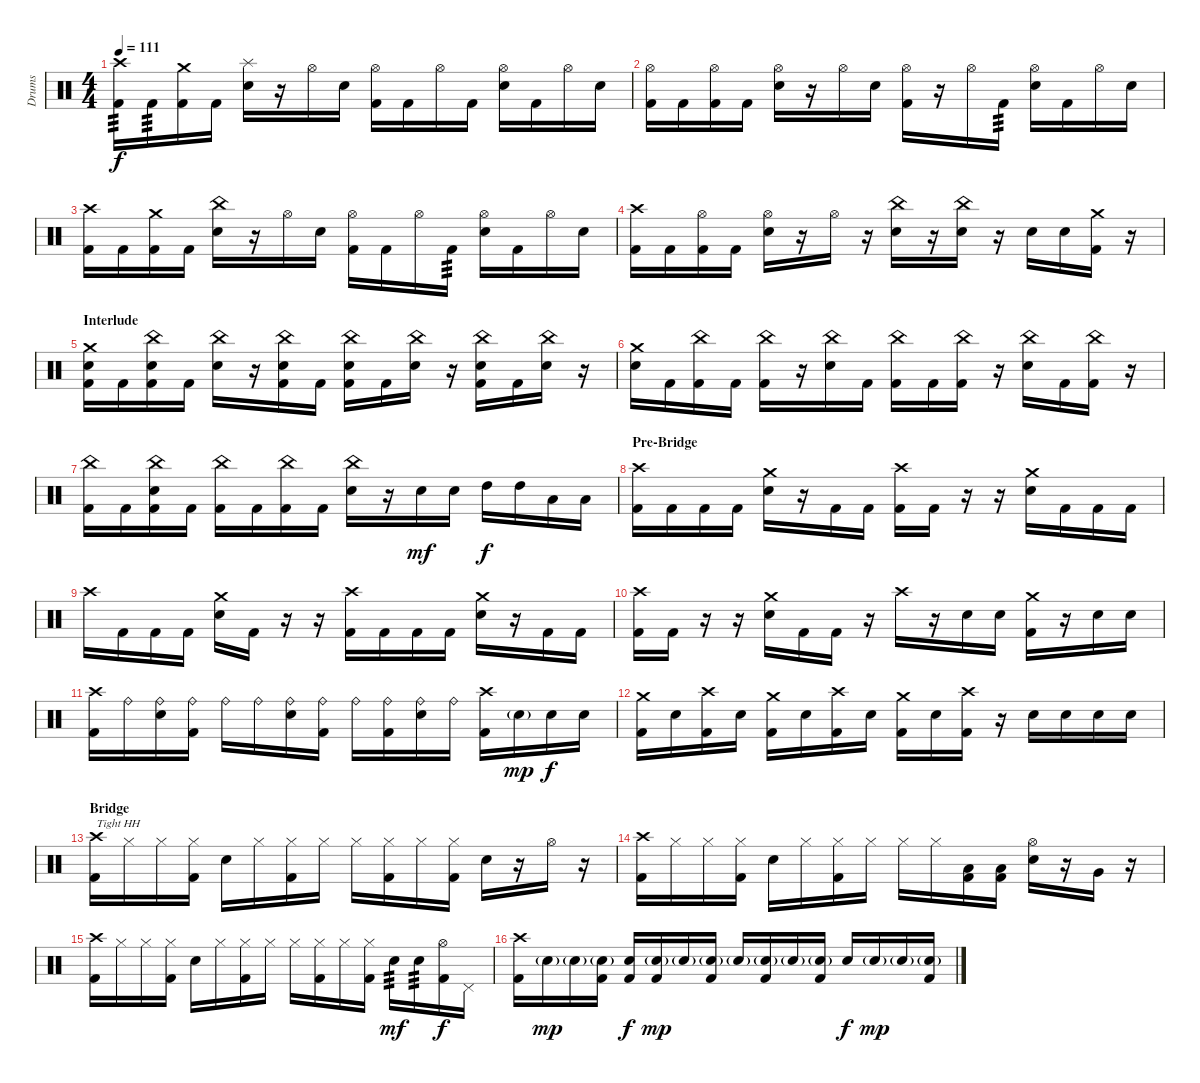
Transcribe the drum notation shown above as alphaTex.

\track ("Drums" "Drums") {instrument percussion}
\staff {score}
\articulation defaults
\ts (4 4)
\tempo 111
\clef neutral
\ks c
("Crash high (hit)" "Kick (hit) 2").16{tp 3 dy f} "Kick (hit) 2".16{tp 3} ("Crash medium (hit)" "Kick (hit) 2").16 "Kick (hit) 2".16 ("Splash (hit)" "Electric Snare (hit)").16 r.16 "Hi-Hat (open)".16 "Electric Snare (hit)".16 ("Hi-Hat (open)" "Kick (hit) 2").16 "Kick (hit) 2".16 "Hi-Hat (open)".16 "Kick (hit) 2".16 ("Hi-Hat (open)" "Electric Snare (hit)").16 "Kick (hit) 2".16 "Hi-Hat (open)".16 "Electric Snare (hit)".16 |
("Hi-Hat (open)" "Kick (hit) 2").16 "Kick (hit) 2".16 ("Hi-Hat (open)" "Kick (hit) 2").16 "Kick (hit) 2".16 ("Hi-Hat (open)" "Electric Snare (hit)").16 r.16 "Hi-Hat (open)".16 "Electric Snare (hit)".16 ("Hi-Hat (open)" "Kick (hit) 2").16 r.16 "Hi-Hat (open)".16 "Kick (hit) 2".16{tp 3} ("Hi-Hat (open)" "Electric Snare (hit)").16 "Kick (hit) 2".16 "Hi-Hat (open)".16 "Electric Snare (hit)".16 |
("Crash high (hit)" "Kick (hit) 2").16 "Kick (hit) 2".16 ("Crash medium (hit)" "Kick (hit) 2").16 "Kick (hit) 2".16 ("China (hit)" "Electric Snare (hit)").16 r.16 "Hi-Hat (open)".16 "Electric Snare (hit)".16 ("Hi-Hat (open)" "Kick (hit) 2").16 "Kick (hit) 2".16 "Hi-Hat (open)".16 "Kick (hit) 2".16{tp 3} ("Hi-Hat (open)" "Electric Snare (hit)").16 "Kick (hit) 2".16 "Hi-Hat (open)".16 "Electric Snare (hit)".16 |
("Crash high (hit)" "Kick (hit) 2").16 "Kick (hit) 2".16 ("Hi-Hat (open)" "Kick (hit) 2").16 "Kick (hit) 2".16 ("Hi-Hat (open)" "Electric Snare (hit)").16 r.16 "Hi-Hat (open)".16 r.16 ("China (hit)" "Electric Snare (hit)").16 r.16 ("China (hit)" "Electric Snare (hit)").16 r.16 "Electric Snare (hit)".16 "Electric Snare (hit)".16 ("Crash medium (hit)" "Kick (hit) 2").16 r.16 |
\section ("" "Interlude")
("Crash medium (hit)" "Electric Snare (hit)" "Kick (hit) 2").16 "Kick (hit) 2".16 ("China (hit)" "Electric Snare (hit)" "Kick (hit) 2").16 "Kick (hit) 2".16 ("China (hit)" "Electric Snare (hit)").16 r.16 ("China (hit)" "Electric Snare (hit)" "Kick (hit) 2").16 "Kick (hit) 2".16 ("China (hit)" "Electric Snare (hit)" "Kick (hit) 2").16 "Kick (hit) 2".16 ("China (hit)" "Electric Snare (hit)").16 r.16 ("China (hit)" "Electric Snare (hit)" "Kick (hit) 2").16 "Kick (hit) 2".16 ("China (hit)" "Electric Snare (hit)").16 r.16 |
("Crash medium (hit)" "Electric Snare (hit)").16 "Kick (hit) 2".16 ("China (hit)" "Kick (hit) 2").16 "Kick (hit) 2".16 ("China (hit)" "Kick (hit) 2").16 r.16 ("China (hit)" "Electric Snare (hit)").16 "Kick (hit) 2".16 ("China (hit)" "Kick (hit) 2").16 "Kick (hit) 2".16 ("China (hit)" "Kick (hit) 2").16 r.16 ("China (hit)" "Electric Snare (hit)").16 "Kick (hit) 2".16 ("China (hit)" "Kick (hit) 2").16 r.16 |
("China (hit)" "Kick (hit) 2").16 "Kick (hit) 2".16 ("China (hit)" "Electric Snare (hit)" "Kick (hit) 2").16 "Kick (hit) 2".16 ("China (hit)" "Kick (hit) 2").16 "Kick (hit) 2".16 ("China (hit)" "Kick (hit) 2").16 "Kick (hit) 2".16 ("China (hit)" "Electric Snare (hit)").16 r.16 "Electric Snare (hit)".16{dy mf} "Electric Snare (hit)".16 "High Tom (hit)".16{dy f} "High Tom (hit)".16 "Low Tom (hit)".16 "Low Tom (hit)".16 |
\section ("" "Pre-Bridge")
("Crash high (hit)" "Kick (hit) 2").16 "Kick (hit) 2".16 "Kick (hit) 2".16 "Kick (hit) 2".16 ("Crash medium (hit)" "Electric Snare (hit)").16 r.16 "Kick (hit) 2".16 "Kick (hit) 2".16 ("Crash high (hit)" "Kick (hit) 2").16 "Kick (hit) 2".16 r.16 r.16 ("Crash medium (hit)" "Electric Snare (hit)").16 "Kick (hit) 2".16 "Kick (hit) 2".16 "Kick (hit) 2".16 |
"Crash high (hit)".16 "Kick (hit) 2".16 "Kick (hit) 2".16 "Kick (hit) 2".16 ("Crash medium (hit)" "Electric Snare (hit)").16 "Kick (hit) 2".16 r.16 r.16 ("Crash high (hit)" "Kick (hit) 2").16 "Kick (hit) 2".16 "Kick (hit) 2".16 "Kick (hit) 2".16 ("Crash medium (hit)" "Electric Snare (hit)").16 r.16 "Kick (hit) 2".16 "Kick (hit) 2".16 |
("Crash high (hit)" "Kick (hit) 2").16 "Kick (hit) 2".16 r.16 r.16 ("Crash medium (hit)" "Electric Snare (hit)").16 "Kick (hit) 2".16 "Kick (hit) 2".16 r.16 "Crash high (hit)".16 r.16 "Electric Snare (hit)".16 "Electric Snare (hit)".16 ("Crash medium (hit)" "Kick (hit) 2").16 r.16 "Electric Snare (hit)".16 "Electric Snare (hit)".16 |
("Crash high (hit)" "Kick (hit) 2").16 "Ride (bell)".16 ("Ride (bell)" "Electric Snare (hit)").16 ("Ride (bell)" "Kick (hit) 2").16 "Ride (bell)".16 "Ride (bell)".16 ("Ride (bell)" "Electric Snare (hit)").16 ("Ride (bell)" "Kick (hit) 2").16 "Ride (bell)".16 ("Ride (bell)" "Kick (hit) 2").16 ("Ride (bell)" "Electric Snare (hit)").16 "Ride (bell)".16 ("Crash high (hit)" "Kick (hit) 2").16 "Electric Snare (hit)"{g}.16{dy mp} "Electric Snare (hit)".16{dy f} "Electric Snare (hit)".16 |
("Crash medium (hit)" "Kick (hit) 2").16 "Electric Snare (hit)".16 ("Crash high (hit)" "Kick (hit) 2").16 "Electric Snare (hit)".16 ("Crash medium (hit)" "Kick (hit) 2").16 "Electric Snare (hit)".16 ("Crash high (hit)" "Kick (hit) 2").16 "Electric Snare (hit)".16 ("Crash medium (hit)" "Kick (hit) 2").16 "Electric Snare (hit)".16 ("Crash high (hit)" "Kick (hit) 2").16 r.16 "Electric Snare (hit)".16 "Electric Snare (hit)".16 "Electric Snare (hit)".16 "Electric Snare (hit)".16 |
\section ("" "Bridge")
("Crash high (hit)" "Kick (hit) 2").16{txt "Tight HH"} "Hi-Hat (closed)".16 "Hi-Hat (closed)".16 ("Hi-Hat (closed)" "Kick (hit) 2").16 "Electric Snare (hit)".16 "Hi-Hat (closed)".16 ("Hi-Hat (closed)" "Kick (hit) 2").16 "Hi-Hat (closed)".16 "Hi-Hat (closed)".16 ("Hi-Hat (closed)" "Kick (hit) 2").16 "Hi-Hat (closed)".16 ("Hi-Hat (closed)" "Kick (hit) 2").16 "Electric Snare (hit)".16 r.16 "Hi-Hat (open)".16 r.16 |
("Crash high (hit)" "Kick (hit) 2").16 "Hi-Hat (closed)".16 "Hi-Hat (closed)".16 ("Hi-Hat (closed)" "Kick (hit) 2").16 "Electric Snare (hit)".16 "Hi-Hat (closed)".16 ("Hi-Hat (closed)" "Kick (hit) 2").16 "Hi-Hat (closed)".16 "Hi-Hat (closed)".16 "Hi-Hat (closed)".16 ("Low Tom (hit)" "Kick (hit) 2").16 ("Low Tom (hit)" "Kick (hit) 2").16 ("Hi-Hat (open)" "Electric Snare (hit)").16 r.16 "Very Low Tom (hit)".16 r.16 |
("Crash high (hit)" "Kick (hit) 2").16 "Hi-Hat (closed)".16 "Hi-Hat (closed)".16 ("Hi-Hat (closed)" "Kick (hit) 2").16 "Electric Snare (hit)".16 "Hi-Hat (closed)".16 ("Hi-Hat (closed)" "Kick (hit) 2").16 "Hi-Hat (closed)".16 "Hi-Hat (closed)".16 ("Hi-Hat (closed)" "Kick (hit) 2").16 "Hi-Hat (closed)".16 ("Hi-Hat (closed)" "Kick (hit) 2").16 "Electric Snare (hit)".16{tp 3 dy mf} "Electric Snare (hit)".16{tp 3} ("Hi-Hat (open)" "Kick (hit) 2").16{dy f} "Pedal Hi-Hat (hit)".16 |
("Crash high (hit)" "Kick (hit) 2").16 "Electric Snare (hit)"{g}.16{dy mp} "Electric Snare (hit)"{g}.16 ("Electric Snare (hit)"{g} "Kick (hit) 2").16 ("Electric Snare (hit)" "Kick (hit) 2").16{dy f} ("Electric Snare (hit)"{g} "Kick (hit) 2").16{dy mp} "Electric Snare (hit)"{g}.16 ("Electric Snare (hit)"{g} "Kick (hit) 2").16 "Electric Snare (hit)"{g}.16 ("Electric Snare (hit)"{g} "Kick (hit) 2").16 "Electric Snare (hit)"{g}.16 ("Electric Snare (hit)"{g} "Kick (hit) 2").16 "Electric Snare (hit)".16{dy f} "Electric Snare (hit)"{g}.16{dy mp} "Electric Snare (hit)"{g}.16 ("Electric Snare (hit)"{g} "Kick (hit) 2").16
